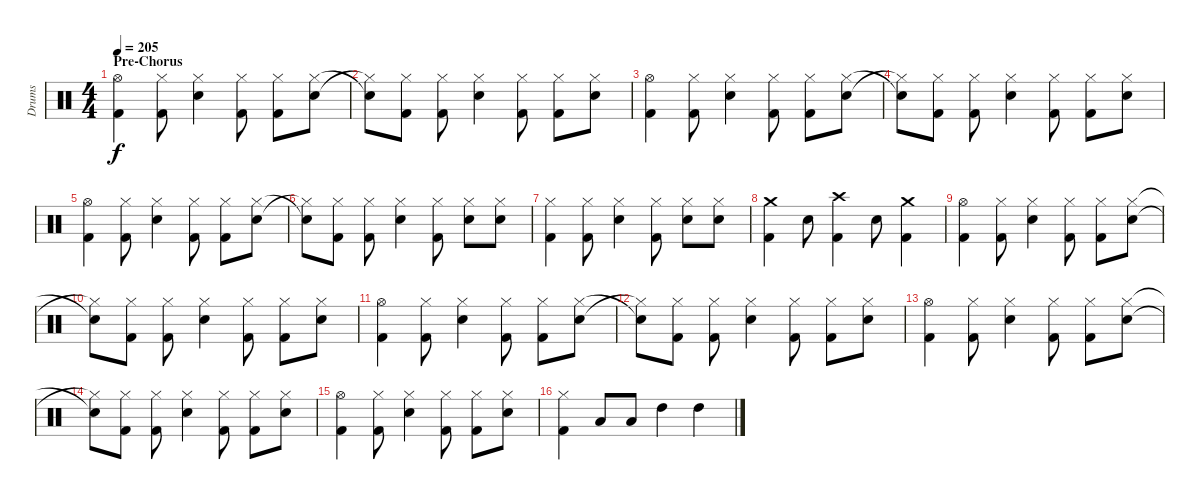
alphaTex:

\track ("Drums" "Drums") {instrument percussion}
\staff {score}
\articulation defaults
\ts (4 4)
\section ("" "Pre-Chorus")
\tempo 205
\clef neutral
\ks c
("Hi-Hat (open)" "Kick (hit) 2").4{dy f} ("Hi-Hat (closed)" "Kick (hit) 2").8 ("Hi-Hat (closed)" "Electric Snare (hit)").4 ("Hi-Hat (closed)" "Kick (hit) 2").8 ("Hi-Hat (closed)" "Kick (hit) 2").8 ("Hi-Hat (closed)" "Electric Snare (hit)").8 |
("Snare (hit)"{t} "Hi-Hat (closed)"{t}).8 ("Hi-Hat (closed)" "Kick (hit) 2").8 ("Hi-Hat (closed)" "Kick (hit) 2").8 ("Hi-Hat (closed)" "Electric Snare (hit)").4 ("Hi-Hat (closed)" "Kick (hit) 2").8 ("Hi-Hat (closed)" "Kick (hit) 2").8 ("Hi-Hat (closed)" "Electric Snare (hit)").8 |
("Hi-Hat (open)" "Kick (hit) 2").4 ("Hi-Hat (closed)" "Kick (hit) 2").8 ("Hi-Hat (closed)" "Electric Snare (hit)").4 ("Hi-Hat (closed)" "Kick (hit) 2").8 ("Hi-Hat (closed)" "Kick (hit) 2").8 ("Hi-Hat (closed)" "Electric Snare (hit)").8 |
("Snare (hit)"{t} "Hi-Hat (closed)"{t}).8 ("Hi-Hat (closed)" "Kick (hit) 2").8 ("Hi-Hat (closed)" "Kick (hit) 2").8 ("Hi-Hat (closed)" "Electric Snare (hit)").4 ("Hi-Hat (closed)" "Kick (hit) 2").8 ("Hi-Hat (closed)" "Kick (hit) 2").8 ("Hi-Hat (closed)" "Electric Snare (hit)").8 |
("Hi-Hat (open)" "Kick (hit) 2").4 ("Hi-Hat (closed)" "Kick (hit) 2").8 ("Hi-Hat (closed)" "Electric Snare (hit)").4 ("Hi-Hat (closed)" "Kick (hit) 2").8 ("Hi-Hat (closed)" "Kick (hit) 2").8 ("Hi-Hat (closed)" "Electric Snare (hit)").8 |
("Snare (hit)"{t} "Hi-Hat (closed)"{t}).8 ("Hi-Hat (closed)" "Kick (hit) 2").8 ("Hi-Hat (closed)" "Kick (hit) 2").8 ("Hi-Hat (closed)" "Electric Snare (hit)").4 ("Hi-Hat (closed)" "Kick (hit) 2").8 ("Hi-Hat (closed)" "Electric Snare (hit)").8 ("Hi-Hat (closed)" "Electric Snare (hit)").8 |
("Hi-Hat (closed)" "Kick (hit) 2").4 ("Kick (hit) 2" "Hi-Hat (closed)").8 ("Hi-Hat (closed)" "Electric Snare (hit)").4 ("Hi-Hat (closed)" "Kick (hit) 2").8 ("Electric Snare (hit)" "Hi-Hat (closed)").8 ("Electric Snare (hit)" "Hi-Hat (closed)").8 |
("Crash medium (hit)" "Kick (hit) 2").4 "Electric Snare (hit)".8 ("Crash high (hit)" "Kick (hit) 2").4 "Electric Snare (hit)".8 ("Crash medium (hit)" "Kick (hit) 2").4 |
("Hi-Hat (open)" "Kick (hit) 2").4 ("Hi-Hat (closed)" "Kick (hit) 2").8 ("Hi-Hat (closed)" "Electric Snare (hit)").4 ("Hi-Hat (closed)" "Kick (hit) 2").8 ("Hi-Hat (closed)" "Kick (hit) 2").8 ("Hi-Hat (closed)" "Electric Snare (hit)").8 |
("Snare (hit)"{t} "Hi-Hat (closed)"{t}).8 ("Hi-Hat (closed)" "Kick (hit) 2").8 ("Hi-Hat (closed)" "Kick (hit) 2").8 ("Hi-Hat (closed)" "Electric Snare (hit)").4 ("Hi-Hat (closed)" "Kick (hit) 2").8 ("Hi-Hat (closed)" "Kick (hit) 2").8 ("Hi-Hat (closed)" "Electric Snare (hit)").8 |
("Hi-Hat (open)" "Kick (hit) 2").4 ("Hi-Hat (closed)" "Kick (hit) 2").8 ("Hi-Hat (closed)" "Electric Snare (hit)").4 ("Hi-Hat (closed)" "Kick (hit) 2").8 ("Hi-Hat (closed)" "Kick (hit) 2").8 ("Hi-Hat (closed)" "Electric Snare (hit)").8 |
("Snare (hit)"{t} "Hi-Hat (closed)"{t}).8 ("Hi-Hat (closed)" "Kick (hit) 2").8 ("Hi-Hat (closed)" "Kick (hit) 2").8 ("Hi-Hat (closed)" "Electric Snare (hit)").4 ("Hi-Hat (closed)" "Kick (hit) 2").8 ("Hi-Hat (closed)" "Kick (hit) 2").8 ("Hi-Hat (closed)" "Electric Snare (hit)").8 |
("Hi-Hat (open)" "Kick (hit) 2").4 ("Hi-Hat (closed)" "Kick (hit) 2").8 ("Hi-Hat (closed)" "Electric Snare (hit)").4 ("Hi-Hat (closed)" "Kick (hit) 2").8 ("Hi-Hat (closed)" "Kick (hit) 2").8 ("Hi-Hat (closed)" "Electric Snare (hit)").8 |
("Snare (hit)"{t} "Hi-Hat (closed)"{t}).8 ("Hi-Hat (closed)" "Kick (hit) 2").8 ("Hi-Hat (closed)" "Kick (hit) 2").8 ("Hi-Hat (closed)" "Electric Snare (hit)").4 ("Hi-Hat (closed)" "Kick (hit) 2").8 ("Hi-Hat (closed)" "Kick (hit) 2").8 ("Hi-Hat (closed)" "Electric Snare (hit)").8 |
("Hi-Hat (open)" "Kick (hit) 2").4 ("Hi-Hat (closed)" "Kick (hit) 2").8 ("Hi-Hat (closed)" "Electric Snare (hit)").4 ("Hi-Hat (closed)" "Kick (hit) 2").8 ("Hi-Hat (closed)" "Kick (hit) 2").8 ("Hi-Hat (closed)" "Electric Snare (hit)").8 |
("Hi-Hat (closed)" "Kick (hit) 2").4 "Low Tom (hit)".8 "Low Tom (hit)".8 "High Tom (hit)".4 "High Tom (hit)".4
